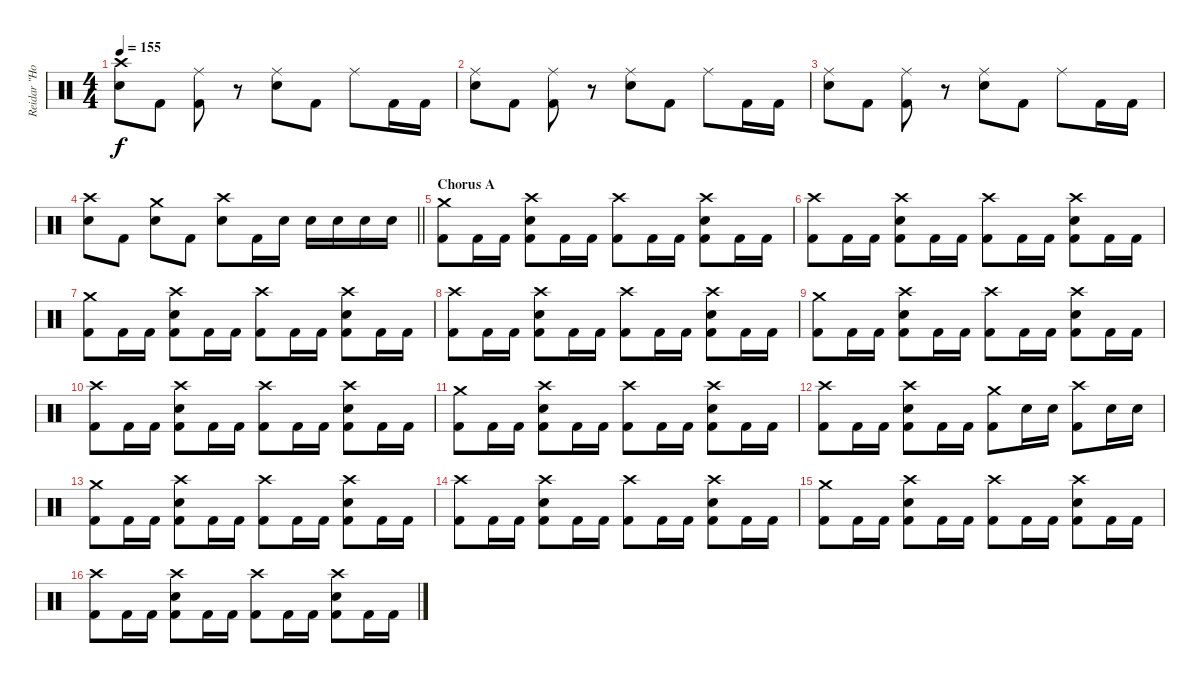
\track ("Reidar \"Horgh\" Horghagen " "Reidar \"Ho") {instrument percussion}
\staff {score}
\articulation defaults
\ts (4 4)
\tempo 155
\clef neutral
\ks c
("Crash high (hit)" "Snare (hit) 2").8{dy f} "Kick (hit) 2".8 ("Ride (middle)" "Kick (hit) 2").8 r.8 ("Ride (middle)" "Snare (hit) 2").8 "Kick (hit) 2".8 "Ride (middle)".8 "Kick (hit) 2".16 "Kick (hit) 2".16 |
("Ride (middle)" "Snare (hit) 2").8 "Kick (hit) 2".8 ("Ride (middle)" "Kick (hit) 2").8 r.8 ("Ride (middle)" "Snare (hit) 2").8 "Kick (hit) 2".8 "Ride (middle)".8 "Kick (hit) 2".16 "Kick (hit) 2".16 |
("Ride (middle)" "Snare (hit) 2").8 "Kick (hit) 2".8 ("Ride (middle)" "Kick (hit) 2").8 r.8 ("Ride (middle)" "Snare (hit) 2").8 "Kick (hit) 2".8 "Ride (middle)".8 "Kick (hit) 2".16 "Kick (hit) 2".16 |
\barLineRight lightlight
("Crash high (hit)" "Snare (hit) 2").8 "Kick (hit) 2".8 ("Crash medium (hit)" "Snare (hit) 2").8 "Kick (hit) 2".8 ("Crash high (hit)" "Snare (hit) 2").8 "Kick (hit) 2".16 "Snare (hit) 2".16 "Snare (hit) 2".16 "Snare (hit) 2".16 "Snare (hit) 2".16 "Snare (hit) 2".16 |
\section ("" "Chorus A")
("Crash medium (hit)" "Kick (hit) 2").8 "Kick (hit) 2".16 "Kick (hit) 2".16 ("Crash high (hit)" "Snare (hit) 2" "Kick (hit) 2").8 "Kick (hit) 2".16 "Kick (hit) 2".16 ("Crash high (hit)" "Kick (hit) 2").8 "Kick (hit) 2".16 "Kick (hit) 2".16 ("Crash high (hit)" "Snare (hit) 2" "Kick (hit) 2").8 "Kick (hit) 2".16 "Kick (hit) 2".16 |
("Crash high (hit)" "Kick (hit) 2").8 "Kick (hit) 2".16 "Kick (hit) 2".16 ("Crash high (hit)" "Snare (hit) 2" "Kick (hit) 2").8 "Kick (hit) 2".16 "Kick (hit) 2".16 ("Crash high (hit)" "Kick (hit) 2").8 "Kick (hit) 2".16 "Kick (hit) 2".16 ("Crash high (hit)" "Snare (hit) 2" "Kick (hit) 2").8 "Kick (hit) 2".16 "Kick (hit) 2".16 |
("Crash medium (hit)" "Kick (hit) 2").8 "Kick (hit) 2".16 "Kick (hit) 2".16 ("Crash high (hit)" "Snare (hit) 2" "Kick (hit) 2").8 "Kick (hit) 2".16 "Kick (hit) 2".16 ("Crash high (hit)" "Kick (hit) 2").8 "Kick (hit) 2".16 "Kick (hit) 2".16 ("Crash high (hit)" "Snare (hit) 2" "Kick (hit) 2").8 "Kick (hit) 2".16 "Kick (hit) 2".16 |
("Crash high (hit)" "Kick (hit) 2").8 "Kick (hit) 2".16 "Kick (hit) 2".16 ("Crash high (hit)" "Snare (hit) 2" "Kick (hit) 2").8 "Kick (hit) 2".16 "Kick (hit) 2".16 ("Crash high (hit)" "Kick (hit) 2").8 "Kick (hit) 2".16 "Kick (hit) 2".16 ("Crash high (hit)" "Snare (hit) 2" "Kick (hit) 2").8 "Kick (hit) 2".16 "Kick (hit) 2".16 |
("Crash medium (hit)" "Kick (hit) 2").8 "Kick (hit) 2".16 "Kick (hit) 2".16 ("Crash high (hit)" "Snare (hit) 2" "Kick (hit) 2").8 "Kick (hit) 2".16 "Kick (hit) 2".16 ("Crash high (hit)" "Kick (hit) 2").8 "Kick (hit) 2".16 "Kick (hit) 2".16 ("Crash high (hit)" "Snare (hit) 2" "Kick (hit) 2").8 "Kick (hit) 2".16 "Kick (hit) 2".16 |
("Crash high (hit)" "Kick (hit) 2").8 "Kick (hit) 2".16 "Kick (hit) 2".16 ("Crash high (hit)" "Snare (hit) 2" "Kick (hit) 2").8 "Kick (hit) 2".16 "Kick (hit) 2".16 ("Crash high (hit)" "Kick (hit) 2").8 "Kick (hit) 2".16 "Kick (hit) 2".16 ("Crash high (hit)" "Snare (hit) 2" "Kick (hit) 2").8 "Kick (hit) 2".16 "Kick (hit) 2".16 |
("Crash medium (hit)" "Kick (hit) 2").8 "Kick (hit) 2".16 "Kick (hit) 2".16 ("Crash high (hit)" "Snare (hit) 2" "Kick (hit) 2").8 "Kick (hit) 2".16 "Kick (hit) 2".16 ("Crash high (hit)" "Kick (hit) 2").8 "Kick (hit) 2".16 "Kick (hit) 2".16 ("Crash high (hit)" "Snare (hit) 2" "Kick (hit) 2").8 "Kick (hit) 2".16 "Kick (hit) 2".16 |
("Crash high (hit)" "Kick (hit) 2").8 "Kick (hit) 2".16 "Kick (hit) 2".16 ("Crash high (hit)" "Snare (hit) 2" "Kick (hit) 2").8 "Kick (hit) 2".16 "Kick (hit) 2".16 ("Crash medium (hit)" "Kick (hit) 2").8 "Snare (hit) 2".16 "Snare (hit) 2".16 ("Crash high (hit)" "Kick (hit) 2").8 "Snare (hit) 2".16 "Snare (hit) 2".16 |
("Crash medium (hit)" "Kick (hit) 2").8 "Kick (hit) 2".16 "Kick (hit) 2".16 ("Crash high (hit)" "Snare (hit) 2" "Kick (hit) 2").8 "Kick (hit) 2".16 "Kick (hit) 2".16 ("Crash high (hit)" "Kick (hit) 2").8 "Kick (hit) 2".16 "Kick (hit) 2".16 ("Crash high (hit)" "Snare (hit) 2" "Kick (hit) 2").8 "Kick (hit) 2".16 "Kick (hit) 2".16 |
("Crash high (hit)" "Kick (hit) 2").8 "Kick (hit) 2".16 "Kick (hit) 2".16 ("Crash high (hit)" "Snare (hit) 2" "Kick (hit) 2").8 "Kick (hit) 2".16 "Kick (hit) 2".16 ("Crash high (hit)" "Kick (hit) 2").8 "Kick (hit) 2".16 "Kick (hit) 2".16 ("Crash high (hit)" "Snare (hit) 2" "Kick (hit) 2").8 "Kick (hit) 2".16 "Kick (hit) 2".16 |
("Crash medium (hit)" "Kick (hit) 2").8 "Kick (hit) 2".16 "Kick (hit) 2".16 ("Crash high (hit)" "Snare (hit) 2" "Kick (hit) 2").8 "Kick (hit) 2".16 "Kick (hit) 2".16 ("Crash high (hit)" "Kick (hit) 2").8 "Kick (hit) 2".16 "Kick (hit) 2".16 ("Crash high (hit)" "Snare (hit) 2" "Kick (hit) 2").8 "Kick (hit) 2".16 "Kick (hit) 2".16 |
("Crash high (hit)" "Kick (hit) 2").8 "Kick (hit) 2".16 "Kick (hit) 2".16 ("Crash high (hit)" "Snare (hit) 2" "Kick (hit) 2").8 "Kick (hit) 2".16 "Kick (hit) 2".16 ("Crash high (hit)" "Kick (hit) 2").8 "Kick (hit) 2".16 "Kick (hit) 2".16 ("Crash high (hit)" "Snare (hit) 2" "Kick (hit) 2").8 "Kick (hit) 2".16 "Kick (hit) 2".16
